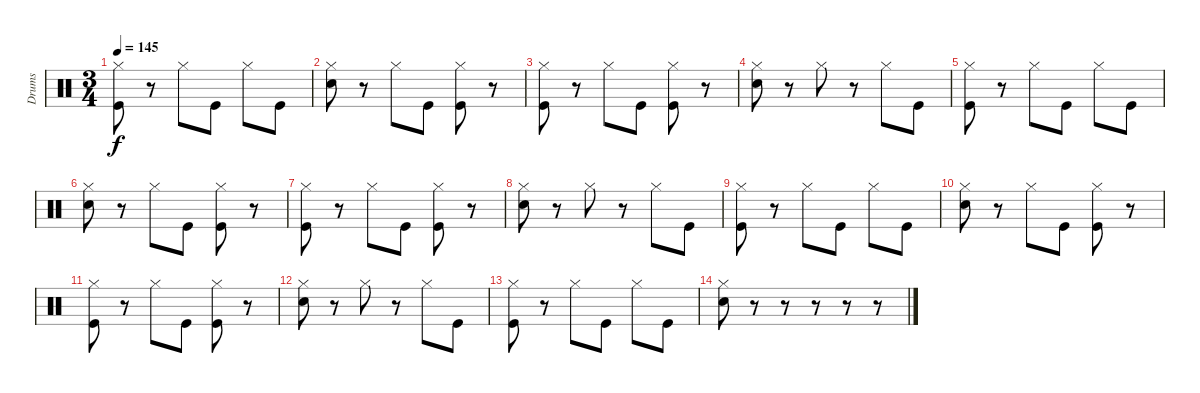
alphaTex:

\track ("Drums" "Drums") {instrument percussion}
\staff {score}
\articulation defaults
\ts (3 4)
\tempo 145
\clef neutral
\ks c
("Hi-Hat (closed)" "Kick (hit)").8{dy f} r.8 "Hi-Hat (closed)".8 "Kick (hit)".8 "Hi-Hat (closed)".8 "Kick (hit)".8 |
("Hi-Hat (closed)" "Electric Snare (hit)").8 r.8 "Hi-Hat (closed)".8 "Kick (hit)".8 ("Hi-Hat (closed)" "Kick (hit)").8 r.8 |
("Hi-Hat (closed)" "Kick (hit)").8 r.8 "Hi-Hat (closed)".8 "Kick (hit)".8 ("Hi-Hat (closed)" "Kick (hit)").8 r.8 |
("Hi-Hat (closed)" "Electric Snare (hit)").8 r.8 "Hi-Hat (closed)".8 r.8 "Hi-Hat (closed)".8 "Kick (hit)".8 |
("Hi-Hat (closed)" "Kick (hit)").8 r.8 "Hi-Hat (closed)".8 "Kick (hit)".8 "Hi-Hat (closed)".8 "Kick (hit)".8 |
("Hi-Hat (closed)" "Electric Snare (hit)").8 r.8 "Hi-Hat (closed)".8 "Kick (hit)".8 ("Hi-Hat (closed)" "Kick (hit)").8 r.8 |
("Hi-Hat (closed)" "Kick (hit)").8 r.8 "Hi-Hat (closed)".8 "Kick (hit)".8 ("Hi-Hat (closed)" "Kick (hit)").8 r.8 |
("Hi-Hat (closed)" "Electric Snare (hit)").8 r.8 "Hi-Hat (closed)".8 r.8 "Hi-Hat (closed)".8 "Kick (hit)".8 |
("Hi-Hat (closed)" "Kick (hit)").8 r.8 "Hi-Hat (closed)".8 "Kick (hit)".8 "Hi-Hat (closed)".8 "Kick (hit)".8 |
("Hi-Hat (closed)" "Electric Snare (hit)").8 r.8 "Hi-Hat (closed)".8 "Kick (hit)".8 ("Hi-Hat (closed)" "Kick (hit)").8 r.8 |
("Hi-Hat (closed)" "Kick (hit)").8 r.8 "Hi-Hat (closed)".8 "Kick (hit)".8 ("Hi-Hat (closed)" "Kick (hit)").8 r.8 |
("Hi-Hat (closed)" "Electric Snare (hit)").8 r.8 "Hi-Hat (closed)".8 r.8 "Hi-Hat (closed)".8 "Kick (hit)".8 |
("Hi-Hat (closed)" "Kick (hit)").8 r.8 "Hi-Hat (closed)".8 "Kick (hit)".8 "Hi-Hat (closed)".8 "Kick (hit)".8 |
("Hi-Hat (closed)" "Electric Snare (hit)").8 r.8 r.8 r.8 r.8 r.8
